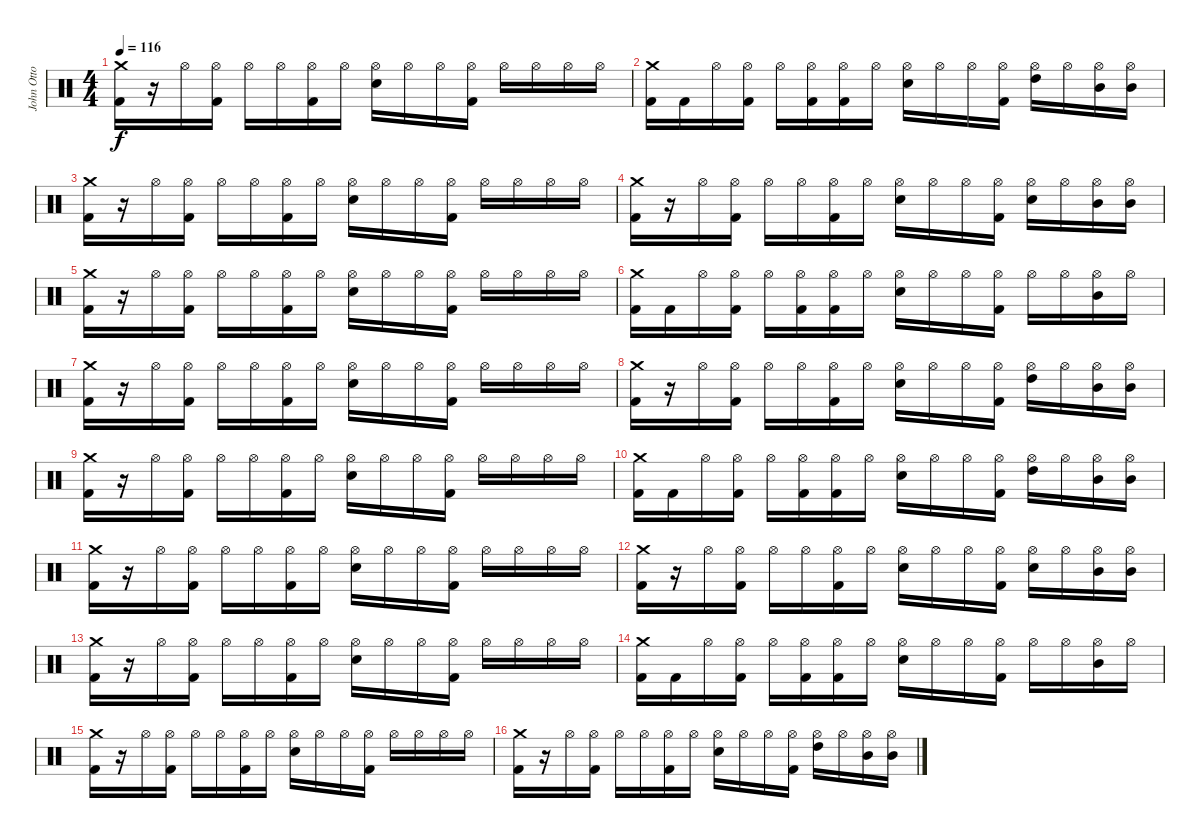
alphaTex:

\track ("John Otto - Drums" "John Otto ") {instrument percussion}
\staff {score}
\articulation defaults
\ts (4 4)
\tempo 116
\clef neutral
\ks c
("Crash medium (hit)" "Kick (hit) 2").16{dy f} r.16 "Hi-Hat (open)".16 ("Hi-Hat (open)" "Kick (hit) 2").16 "Hi-Hat (open)".16 "Hi-Hat (open)".16 ("Hi-Hat (open)" "Kick (hit) 2").16 "Hi-Hat (open)".16 ("Hi-Hat (open)" "Electric Snare (hit)").16 "Hi-Hat (open)".16 "Hi-Hat (open)".16 ("Hi-Hat (open)" "Kick (hit) 2").16 "Hi-Hat (open)".16 "Hi-Hat (open)".16 "Hi-Hat (open)".16 "Hi-Hat (open)".16 |
("Crash medium (hit)" "Kick (hit) 2").16 "Kick (hit) 2".16 "Hi-Hat (open)".16 ("Hi-Hat (open)" "Kick (hit) 2").16 "Hi-Hat (open)".16 ("Hi-Hat (open)" "Kick (hit) 2").16 ("Hi-Hat (open)" "Kick (hit) 2").16 "Hi-Hat (open)".16 ("Hi-Hat (open)" "Electric Snare (hit)").16 "Hi-Hat (open)".16 "Hi-Hat (open)".16 ("Hi-Hat (open)" "Kick (hit) 2").16 ("Hi-Hat (open)" "High Tom (hit)").16 "Hi-Hat (open)".16 ("Hi-Hat (open)" "Mid Tom (hit)").16 ("Hi-Hat (open)" "Mid Tom (hit)").16 |
("Crash medium (hit)" "Kick (hit) 2").16 r.16 "Hi-Hat (open)".16 ("Hi-Hat (open)" "Kick (hit) 2").16 "Hi-Hat (open)".16 "Hi-Hat (open)".16 ("Hi-Hat (open)" "Kick (hit) 2").16 "Hi-Hat (open)".16 ("Hi-Hat (open)" "Electric Snare (hit)").16 "Hi-Hat (open)".16 "Hi-Hat (open)".16 ("Hi-Hat (open)" "Kick (hit) 2").16 "Hi-Hat (open)".16 "Hi-Hat (open)".16 "Hi-Hat (open)".16 "Hi-Hat (open)".16 |
("Crash medium (hit)" "Kick (hit) 2").16 r.16 "Hi-Hat (open)".16 ("Hi-Hat (open)" "Kick (hit) 2").16 "Hi-Hat (open)".16 "Hi-Hat (open)".16 ("Hi-Hat (open)" "Kick (hit) 2").16 "Hi-Hat (open)".16 ("Hi-Hat (open)" "Electric Snare (hit)").16 "Hi-Hat (open)".16 "Hi-Hat (open)".16 ("Hi-Hat (open)" "Kick (hit) 2").16 ("Hi-Hat (open)" "Electric Snare (hit)").16 "Hi-Hat (open)".16 ("Hi-Hat (open)" "Mid Tom (hit)").16 ("Hi-Hat (open)" "Mid Tom (hit)").16 |
("Crash medium (hit)" "Kick (hit) 2").16 r.16 "Hi-Hat (open)".16 ("Hi-Hat (open)" "Kick (hit) 2").16 "Hi-Hat (open)".16 "Hi-Hat (open)".16 ("Hi-Hat (open)" "Kick (hit) 2").16 "Hi-Hat (open)".16 ("Hi-Hat (open)" "Electric Snare (hit)").16 "Hi-Hat (open)".16 "Hi-Hat (open)".16 ("Hi-Hat (open)" "Kick (hit) 2").16 "Hi-Hat (open)".16 "Hi-Hat (open)".16 "Hi-Hat (open)".16 "Hi-Hat (open)".16 |
("Crash medium (hit)" "Kick (hit) 2").16 "Kick (hit) 2".16 "Hi-Hat (open)".16 ("Hi-Hat (open)" "Kick (hit) 2").16 "Hi-Hat (open)".16 ("Hi-Hat (open)" "Kick (hit) 2").16 ("Hi-Hat (open)" "Kick (hit) 2").16 "Hi-Hat (open)".16 ("Hi-Hat (open)" "Electric Snare (hit)").16 "Hi-Hat (open)".16 "Hi-Hat (open)".16 ("Hi-Hat (open)" "Kick (hit) 2").16 "Hi-Hat (open)".16 "Hi-Hat (open)".16 ("Hi-Hat (open)" "Mid Tom (hit)").16 "Hi-Hat (open)".16 |
("Crash medium (hit)" "Kick (hit) 2").16 r.16 "Hi-Hat (open)".16 ("Hi-Hat (open)" "Kick (hit) 2").16 "Hi-Hat (open)".16 "Hi-Hat (open)".16 ("Hi-Hat (open)" "Kick (hit) 2").16 "Hi-Hat (open)".16 ("Hi-Hat (open)" "Electric Snare (hit)").16 "Hi-Hat (open)".16 "Hi-Hat (open)".16 ("Hi-Hat (open)" "Kick (hit) 2").16 "Hi-Hat (open)".16 "Hi-Hat (open)".16 "Hi-Hat (open)".16 "Hi-Hat (open)".16 |
("Crash medium (hit)" "Kick (hit) 2").16 r.16 "Hi-Hat (open)".16 ("Hi-Hat (open)" "Kick (hit) 2").16 "Hi-Hat (open)".16 "Hi-Hat (open)".16 ("Hi-Hat (open)" "Kick (hit) 2").16 "Hi-Hat (open)".16 ("Hi-Hat (open)" "Electric Snare (hit)").16 "Hi-Hat (open)".16 "Hi-Hat (open)".16 ("Hi-Hat (open)" "Kick (hit) 2").16 ("Hi-Hat (open)" "High Tom (hit)").16 "Hi-Hat (open)".16 ("Hi-Hat (open)" "Mid Tom (hit)").16 ("Hi-Hat (open)" "Mid Tom (hit)").16 |
("Crash medium (hit)" "Kick (hit) 2").16 r.16 "Hi-Hat (open)".16 ("Hi-Hat (open)" "Kick (hit) 2").16 "Hi-Hat (open)".16 "Hi-Hat (open)".16 ("Hi-Hat (open)" "Kick (hit) 2").16 "Hi-Hat (open)".16 ("Hi-Hat (open)" "Electric Snare (hit)").16 "Hi-Hat (open)".16 "Hi-Hat (open)".16 ("Hi-Hat (open)" "Kick (hit) 2").16 "Hi-Hat (open)".16 "Hi-Hat (open)".16 "Hi-Hat (open)".16 "Hi-Hat (open)".16 |
("Crash medium (hit)" "Kick (hit) 2").16 "Kick (hit) 2".16 "Hi-Hat (open)".16 ("Hi-Hat (open)" "Kick (hit) 2").16 "Hi-Hat (open)".16 ("Hi-Hat (open)" "Kick (hit) 2").16 ("Hi-Hat (open)" "Kick (hit) 2").16 "Hi-Hat (open)".16 ("Hi-Hat (open)" "Electric Snare (hit)").16 "Hi-Hat (open)".16 "Hi-Hat (open)".16 ("Hi-Hat (open)" "Kick (hit) 2").16 ("Hi-Hat (open)" "High Tom (hit)").16 "Hi-Hat (open)".16 ("Hi-Hat (open)" "Mid Tom (hit)").16 ("Hi-Hat (open)" "Mid Tom (hit)").16 |
("Crash medium (hit)" "Kick (hit) 2").16 r.16 "Hi-Hat (open)".16 ("Hi-Hat (open)" "Kick (hit) 2").16 "Hi-Hat (open)".16 "Hi-Hat (open)".16 ("Hi-Hat (open)" "Kick (hit) 2").16 "Hi-Hat (open)".16 ("Hi-Hat (open)" "Electric Snare (hit)").16 "Hi-Hat (open)".16 "Hi-Hat (open)".16 ("Hi-Hat (open)" "Kick (hit) 2").16 "Hi-Hat (open)".16 "Hi-Hat (open)".16 "Hi-Hat (open)".16 "Hi-Hat (open)".16 |
("Crash medium (hit)" "Kick (hit) 2").16 r.16 "Hi-Hat (open)".16 ("Hi-Hat (open)" "Kick (hit) 2").16 "Hi-Hat (open)".16 "Hi-Hat (open)".16 ("Hi-Hat (open)" "Kick (hit) 2").16 "Hi-Hat (open)".16 ("Hi-Hat (open)" "Electric Snare (hit)").16 "Hi-Hat (open)".16 "Hi-Hat (open)".16 ("Hi-Hat (open)" "Kick (hit) 2").16 ("Hi-Hat (open)" "Electric Snare (hit)").16 "Hi-Hat (open)".16 ("Hi-Hat (open)" "Mid Tom (hit)").16 ("Hi-Hat (open)" "Mid Tom (hit)").16 |
("Crash medium (hit)" "Kick (hit) 2").16 r.16 "Hi-Hat (open)".16 ("Hi-Hat (open)" "Kick (hit) 2").16 "Hi-Hat (open)".16 "Hi-Hat (open)".16 ("Hi-Hat (open)" "Kick (hit) 2").16 "Hi-Hat (open)".16 ("Hi-Hat (open)" "Electric Snare (hit)").16 "Hi-Hat (open)".16 "Hi-Hat (open)".16 ("Hi-Hat (open)" "Kick (hit) 2").16 "Hi-Hat (open)".16 "Hi-Hat (open)".16 "Hi-Hat (open)".16 "Hi-Hat (open)".16 |
("Crash medium (hit)" "Kick (hit) 2").16 "Kick (hit) 2".16 "Hi-Hat (open)".16 ("Hi-Hat (open)" "Kick (hit) 2").16 "Hi-Hat (open)".16 ("Hi-Hat (open)" "Kick (hit) 2").16 ("Hi-Hat (open)" "Kick (hit) 2").16 "Hi-Hat (open)".16 ("Hi-Hat (open)" "Electric Snare (hit)").16 "Hi-Hat (open)".16 "Hi-Hat (open)".16 ("Hi-Hat (open)" "Kick (hit) 2").16 "Hi-Hat (open)".16 "Hi-Hat (open)".16 ("Hi-Hat (open)" "Mid Tom (hit)").16 "Hi-Hat (open)".16 |
("Crash medium (hit)" "Kick (hit) 2").16 r.16 "Hi-Hat (open)".16 ("Hi-Hat (open)" "Kick (hit) 2").16 "Hi-Hat (open)".16 "Hi-Hat (open)".16 ("Hi-Hat (open)" "Kick (hit) 2").16 "Hi-Hat (open)".16 ("Hi-Hat (open)" "Electric Snare (hit)").16 "Hi-Hat (open)".16 "Hi-Hat (open)".16 ("Hi-Hat (open)" "Kick (hit) 2").16 "Hi-Hat (open)".16 "Hi-Hat (open)".16 "Hi-Hat (open)".16 "Hi-Hat (open)".16 |
("Crash medium (hit)" "Kick (hit) 2").16 r.16 "Hi-Hat (open)".16 ("Hi-Hat (open)" "Kick (hit) 2").16 "Hi-Hat (open)".16 "Hi-Hat (open)".16 ("Hi-Hat (open)" "Kick (hit) 2").16 "Hi-Hat (open)".16 ("Hi-Hat (open)" "Electric Snare (hit)").16 "Hi-Hat (open)".16 "Hi-Hat (open)".16 ("Hi-Hat (open)" "Kick (hit) 2").16 ("Hi-Hat (open)" "High Tom (hit)").16 "Hi-Hat (open)".16 ("Hi-Hat (open)" "Mid Tom (hit)").16 ("Hi-Hat (open)" "Mid Tom (hit)").16
